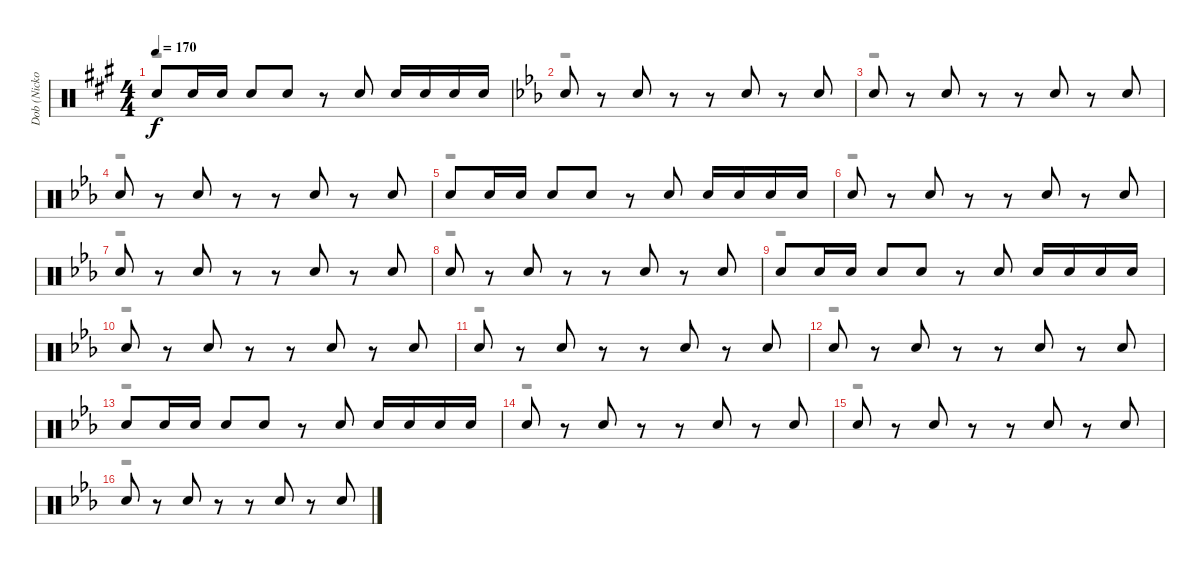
\track ("Dob (Nicko McBrain)" "Dob (Nicko") {instrument percussion}
\staff {score}
\articulation defaults
\voice
\ts (4 4)
\tempo 170
\clef neutral
\ks a "Electric Snare (hit)".8{dy f} "Electric Snare (hit)".16 "Electric Snare (hit)".16 "Electric Snare (hit)".8 "Electric Snare (hit)".8
r.8 "Electric Snare (hit)".8 "Electric Snare (hit)".16 "Electric Snare (hit)".16 "Electric Snare (hit)".16 "Electric Snare (hit)".16 |
\ks eb "Electric Snare (hit)".8
r.8 "Electric Snare (hit)".8 r.8 r.8 "Electric Snare (hit)".8 r.8 "Electric Snare (hit)".8 |
"Electric Snare (hit)".8 r.8 "Electric Snare (hit)".8 r.8 r.8 "Electric Snare (hit)".8 r.8 "Electric Snare (hit)".8 |
"Electric Snare (hit)".8 r.8 "Electric Snare (hit)".8 r.8 r.8 "Electric Snare (hit)".8 r.8 "Electric Snare (hit)".8 |
"Electric Snare (hit)".8 "Electric Snare (hit)".16 "Electric Snare (hit)".16 "Electric Snare (hit)".8 "Electric Snare (hit)".8 r.8 "Electric Snare (hit)".8 "Electric Snare (hit)".16 "Electric Snare (hit)".16 "Electric Snare (hit)".16 "Electric Snare (hit)".16 |
"Electric Snare (hit)".8 r.8 "Electric Snare (hit)".8 r.8 r.8 "Electric Snare (hit)".8 r.8 "Electric Snare (hit)".8 |
"Electric Snare (hit)".8 r.8 "Electric Snare (hit)".8 r.8 r.8 "Electric Snare (hit)".8 r.8 "Electric Snare (hit)".8 |
"Electric Snare (hit)".8 r.8 "Electric Snare (hit)".8 r.8 r.8 "Electric Snare (hit)".8 r.8 "Electric Snare (hit)".8 |
"Electric Snare (hit)".8 "Electric Snare (hit)".16 "Electric Snare (hit)".16 "Electric Snare (hit)".8 "Electric Snare (hit)".8 r.8 "Electric Snare (hit)".8 "Electric Snare (hit)".16 "Electric Snare (hit)".16 "Electric Snare (hit)".16 "Electric Snare (hit)".16 |
"Electric Snare (hit)".8 r.8 "Electric Snare (hit)".8 r.8 r.8 "Electric Snare (hit)".8 r.8 "Electric Snare (hit)".8 |
"Electric Snare (hit)".8 r.8 "Electric Snare (hit)".8 r.8 r.8 "Electric Snare (hit)".8 r.8 "Electric Snare (hit)".8 |
"Electric Snare (hit)".8 r.8 "Electric Snare (hit)".8 r.8 r.8 "Electric Snare (hit)".8 r.8 "Electric Snare (hit)".8 |
"Electric Snare (hit)".8 "Electric Snare (hit)".16 "Electric Snare (hit)".16 "Electric Snare (hit)".8 "Electric Snare (hit)".8 r.8 "Electric Snare (hit)".8 "Electric Snare (hit)".16 "Electric Snare (hit)".16 "Electric Snare (hit)".16 "Electric Snare (hit)".16 |
"Electric Snare (hit)".8 r.8 "Electric Snare (hit)".8 r.8 r.8 "Electric Snare (hit)".8 r.8 "Electric Snare (hit)".8 |
"Electric Snare (hit)".8 r.8 "Electric Snare (hit)".8 r.8 r.8 "Electric Snare (hit)".8 r.8 "Electric Snare (hit)".8 |
"Electric Snare (hit)".8 r.8 "Electric Snare (hit)".8 r.8 r.8 "Electric Snare (hit)".8 r.8 "Electric Snare (hit)".8
\voice
\clef neutral
\ottava regular
\simile none
\ks a
r.1{dy f} |
\ks eb
r.1 |
r.1 |
r.1 |
r.1 |
r.1 |
r.1 |
r.1 |
r.1 |
r.1 |
r.1 |
r.1 |
r.1 |
r.1 |
r.1 |
r.1
